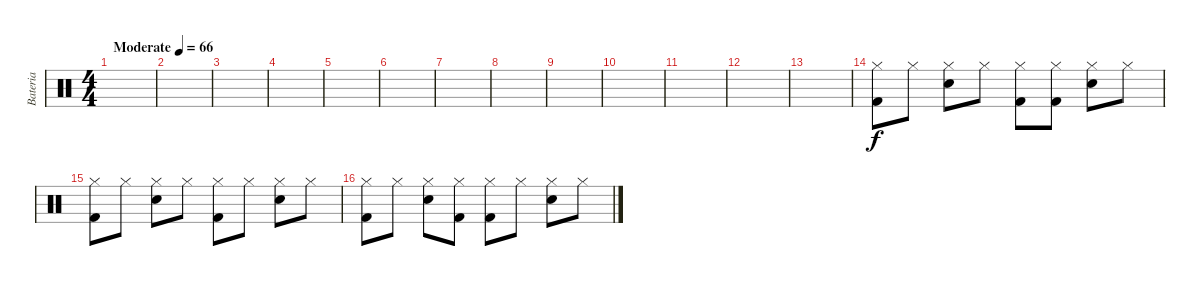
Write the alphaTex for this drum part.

\track ("Bateria" "Bateria") {instrument percussion}
\staff {score}
\articulation defaults
\ts (4 4)
\tempo (66 "Moderate")
\clef neutral
\ks c
|
|
|
|
|
|
|
|
|
|
|
|
|
("Hi-Hat (closed)" "Kick (hit) 2").8 "Hi-Hat (closed)".8 ("Hi-Hat (closed)" "Snare (hit) 2").8 "Hi-Hat (closed)".8 ("Hi-Hat (closed)" "Kick (hit) 2").8 ("Hi-Hat (closed)" "Kick (hit) 2").8 ("Hi-Hat (closed)" "Snare (hit) 2").8 "Hi-Hat (closed)".8 |
("Hi-Hat (closed)" "Kick (hit) 2").8 "Hi-Hat (closed)".8 ("Hi-Hat (closed)" "Snare (hit) 2").8 "Hi-Hat (closed)".8 ("Hi-Hat (closed)" "Kick (hit) 2").8 "Hi-Hat (closed)".8 ("Hi-Hat (closed)" "Snare (hit) 2").8 "Hi-Hat (closed)".8 |
("Hi-Hat (closed)" "Kick (hit) 2").8 "Hi-Hat (closed)".8 ("Hi-Hat (closed)" "Snare (hit) 2").8 ("Hi-Hat (closed)" "Kick (hit) 2").8 ("Hi-Hat (closed)" "Kick (hit) 2").8 "Hi-Hat (closed)".8 ("Hi-Hat (closed)" "Snare (hit) 2").8 "Hi-Hat (closed)".8
